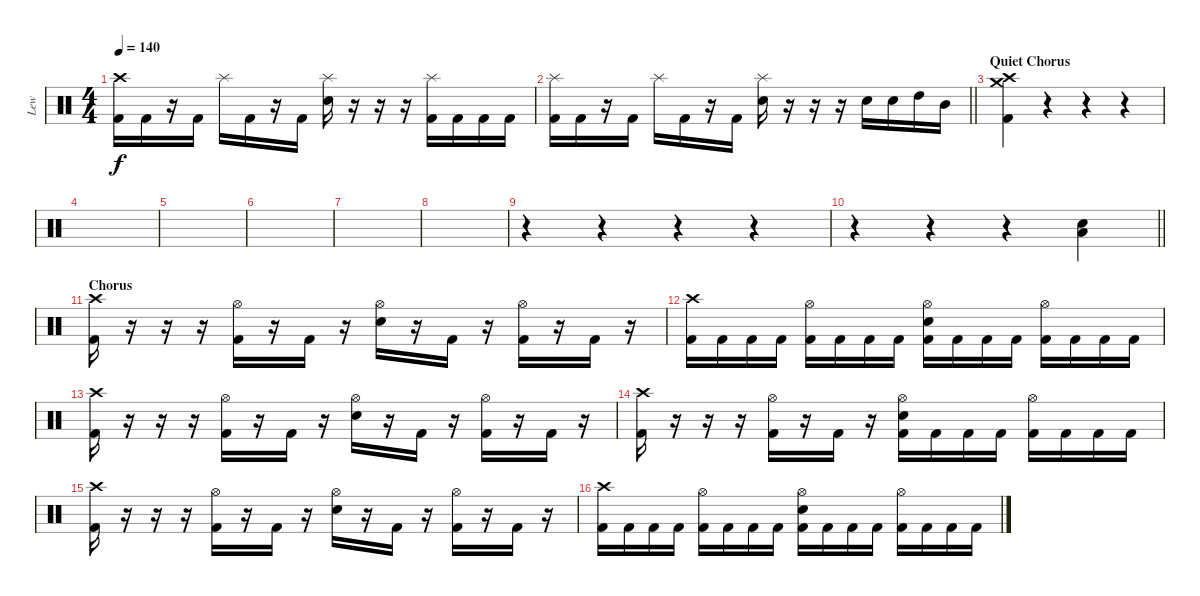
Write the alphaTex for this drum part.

\track ("Lew" "Lew") {instrument percussion}
\staff {score}
\articulation defaults
\ts (4 4)
\tempo 140
\clef neutral
\ks c
("Crash high (hit)" "Kick (hit) 2").16{dy f} "Kick (hit) 2".16 r.16 "Kick (hit) 2".16 "Splash (hit)".16 "Kick (hit) 2".16 r.16 "Kick (hit) 2".16 ("Splash (hit)" "Electric Snare (hit)").16 r.16 r.16 r.16 ("Splash (hit)" "Kick (hit) 2").16 "Kick (hit) 2".16 "Kick (hit) 2".16 "Kick (hit) 2".16 |
\barLineRight lightlight
("Splash (hit)" "Kick (hit) 2").16 "Kick (hit) 2".16 r.16 "Kick (hit) 2".16 "Splash (hit)".16 "Kick (hit) 2".16 r.16 "Kick (hit) 2".16 ("Splash (hit)" "Electric Snare (hit)").16 r.16 r.16 r.16 "Electric Snare (hit)".16 "Electric Snare (hit)".16 "High Tom (hit)".16 "Mid Tom (hit)".16 |
\section ("" "Quiet Chorus")
("Crash medium (hit)" "Crash high (hit)" "Kick (hit) 2").4 r.4 r.4 r.4 |
|
|
|
|
|
r.4 r.4 r.4 r.4 |
\barLineRight lightlight
r.4 r.4 r.4 ("Low Tom (hit)" "Electric Snare (hit)").4 |
\section ("" "Chorus")
("Crash high (hit)" "Kick (hit) 2").16 r.16 r.16 r.16 ("Hi-Hat (open)" "Kick (hit) 2").16 r.16 "Kick (hit) 2".16 r.16 ("Hi-Hat (open)" "Electric Snare (hit)").16 r.16 "Kick (hit) 2".16 r.16 ("Hi-Hat (open)" "Kick (hit) 2").16 r.16 "Kick (hit) 2".16 r.16 |
("Crash high (hit)" "Kick (hit) 2").16 "Kick (hit) 2".16 "Kick (hit) 2".16 "Kick (hit) 2".16 ("Hi-Hat (open)" "Kick (hit) 2").16 "Kick (hit) 2".16 "Kick (hit) 2".16 "Kick (hit) 2".16 ("Hi-Hat (open)" "Electric Snare (hit)" "Kick (hit) 2").16 "Kick (hit) 2".16 "Kick (hit) 2".16 "Kick (hit) 2".16 ("Hi-Hat (open)" "Kick (hit) 2").16 "Kick (hit) 2".16 "Kick (hit) 2".16 "Kick (hit) 2".16 |
("Crash high (hit)" "Kick (hit) 2").16 r.16 r.16 r.16 ("Hi-Hat (open)" "Kick (hit) 2").16 r.16 "Kick (hit) 2".16 r.16 ("Hi-Hat (open)" "Electric Snare (hit)").16 r.16 "Kick (hit) 2".16 r.16 ("Hi-Hat (open)" "Kick (hit) 2").16 r.16 "Kick (hit) 2".16 r.16 |
("Crash high (hit)" "Kick (hit) 2").16 r.16 r.16 r.16 ("Hi-Hat (open)" "Kick (hit) 2").16 r.16 "Kick (hit) 2".16 r.16 ("Hi-Hat (open)" "Electric Snare (hit)" "Kick (hit) 2").16 "Kick (hit) 2".16 "Kick (hit) 2".16 "Kick (hit) 2".16 ("Hi-Hat (open)" "Kick (hit) 2").16 "Kick (hit) 2".16 "Kick (hit) 2".16 "Kick (hit) 2".16 |
("Crash high (hit)" "Kick (hit) 2").16 r.16 r.16 r.16 ("Hi-Hat (open)" "Kick (hit) 2").16 r.16 "Kick (hit) 2".16 r.16 ("Hi-Hat (open)" "Electric Snare (hit)").16 r.16 "Kick (hit) 2".16 r.16 ("Hi-Hat (open)" "Kick (hit) 2").16 r.16 "Kick (hit) 2".16 r.16 |
("Crash high (hit)" "Kick (hit) 2").16 "Kick (hit) 2".16 "Kick (hit) 2".16 "Kick (hit) 2".16 ("Hi-Hat (open)" "Kick (hit) 2").16 "Kick (hit) 2".16 "Kick (hit) 2".16 "Kick (hit) 2".16 ("Hi-Hat (open)" "Electric Snare (hit)" "Kick (hit) 2").16 "Kick (hit) 2".16 "Kick (hit) 2".16 "Kick (hit) 2".16 ("Hi-Hat (open)" "Kick (hit) 2").16 "Kick (hit) 2".16 "Kick (hit) 2".16 "Kick (hit) 2".16
